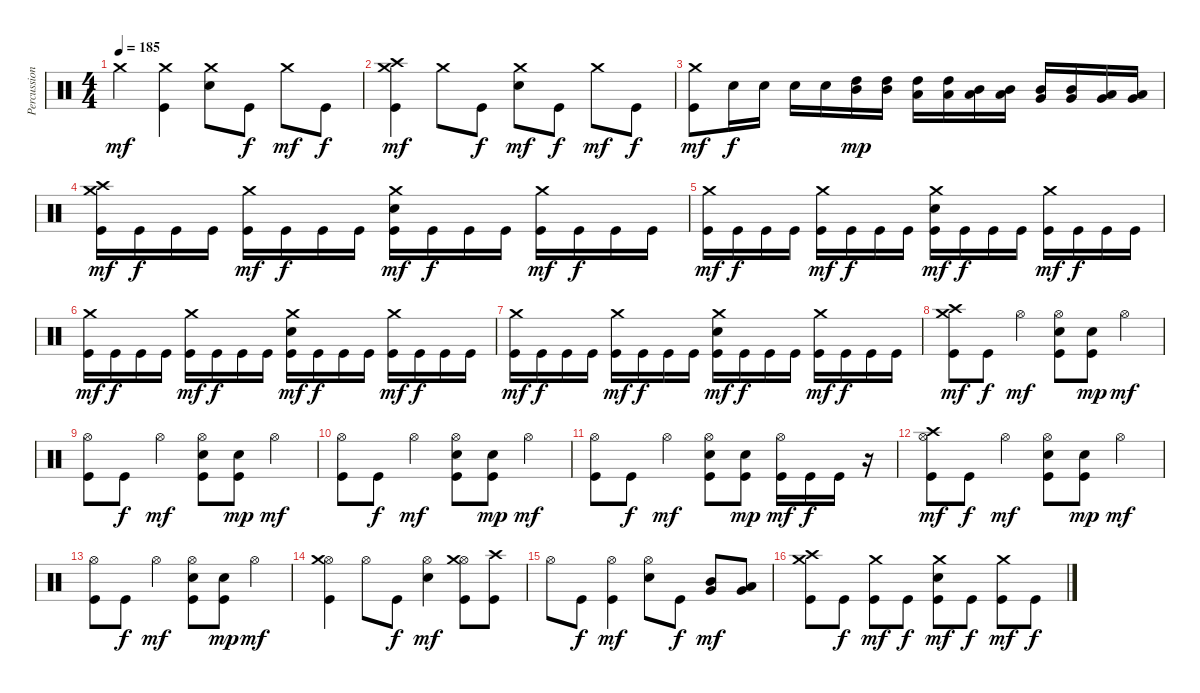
\track ("Percussions" "Percussion") {instrument percussion}
\staff {score}
\articulation defaults
\ts (4 4)
\tempo 185
\clef neutral
\ks c "Crash medium (hit)".4{dy mf}
("Kick (hit)" "Crash medium (hit)").4 ("Electric Snare (hit)" "Crash medium (hit)").8 "Kick (hit)".8{dy f} "Crash medium (hit)".8{dy mf} "Kick (hit)".8{dy f} |
("Kick (hit)" "Crash medium (hit)" "Crash high (hit)").4{dy mf} "Crash medium (hit)".8 "Kick (hit)".8{dy f} ("Electric Snare (hit)" "Crash medium (hit)").8{dy mf} "Kick (hit)".8{dy f} "Crash medium (hit)".8{dy mf} "Kick (hit)".8{dy f} |
("Kick (hit)" "Crash medium (hit)").8{dy mf} "Electric Snare (hit)".16{dy f} "Electric Snare (hit)".16 "Electric Snare (hit)".16 "Electric Snare (hit)".16 ("Mid Tom (hit)" "High Tom (hit)").16{dy mp} ("Mid Tom (hit)" "High Tom (hit)").16 ("Low Tom (hit)" "High Tom (hit)").16 ("Low Tom (hit)" "High Tom (hit)").16 ("Low Tom (hit)" "Mid Tom (hit)").16 ("Low Tom (hit)" "Mid Tom (hit)").16 ("Very Low Tom (hit)" "Mid Tom (hit)").16 ("Very Low Tom (hit)" "Mid Tom (hit)").16 ("Very Low Tom (hit)" "Low Tom (hit)").16 ("Very Low Tom (hit)" "Low Tom (hit)").16 |
("Kick (hit)" "Crash medium (hit)" "Crash high (hit)").16{dy mf} "Kick (hit)".16{dy f} "Kick (hit)".16 "Kick (hit)".16 ("Kick (hit)" "Crash medium (hit)").16{dy mf} "Kick (hit)".16{dy f} "Kick (hit)".16 "Kick (hit)".16 ("Kick (hit)" "Electric Snare (hit)" "Crash medium (hit)").16{dy mf} "Kick (hit)".16{dy f} "Kick (hit)".16 "Kick (hit)".16 ("Kick (hit)" "Crash medium (hit)").16{dy mf} "Kick (hit)".16{dy f} "Kick (hit)".16 "Kick (hit)".16 |
("Kick (hit)" "Crash medium (hit)").16{dy mf} "Kick (hit)".16{dy f} "Kick (hit)".16 "Kick (hit)".16 ("Kick (hit)" "Crash medium (hit)").16{dy mf} "Kick (hit)".16{dy f} "Kick (hit)".16 "Kick (hit)".16 ("Kick (hit)" "Electric Snare (hit)" "Crash medium (hit)").16{dy mf} "Kick (hit)".16{dy f} "Kick (hit)".16 "Kick (hit)".16 ("Kick (hit)" "Crash medium (hit)").16{dy mf} "Kick (hit)".16{dy f} "Kick (hit)".16 "Kick (hit)".16 |
("Kick (hit)" "Crash medium (hit)").16{dy mf} "Kick (hit)".16{dy f} "Kick (hit)".16 "Kick (hit)".16 ("Kick (hit)" "Crash medium (hit)").16{dy mf} "Kick (hit)".16{dy f} "Kick (hit)".16 "Kick (hit)".16 ("Kick (hit)" "Electric Snare (hit)" "Crash medium (hit)").16{dy mf} "Kick (hit)".16{dy f} "Kick (hit)".16 "Kick (hit)".16 ("Kick (hit)" "Crash medium (hit)").16{dy mf} "Kick (hit)".16{dy f} "Kick (hit)".16 "Kick (hit)".16 |
("Kick (hit)" "Crash medium (hit)").16{dy mf} "Kick (hit)".16{dy f} "Kick (hit)".16 "Kick (hit)".16 ("Kick (hit)" "Crash medium (hit)").16{dy mf} "Kick (hit)".16{dy f} "Kick (hit)".16 "Kick (hit)".16 ("Kick (hit)" "Electric Snare (hit)" "Crash medium (hit)").16{dy mf} "Kick (hit)".16{dy f} "Kick (hit)".16 "Kick (hit)".16 ("Kick (hit)" "Crash medium (hit)").16{dy mf} "Kick (hit)".16{dy f} "Kick (hit)".16 "Kick (hit)".16 |
("Kick (hit)" "Crash medium (hit)" "Crash high (hit)").8{dy mf} "Kick (hit)".8{dy f} "Hi-Hat (open)".4{dy mf} ("Kick (hit)" "Electric Snare (hit)" "Hi-Hat (open)").8 ("Kick (hit)" "Electric Snare (hit)").8{dy mp} "Hi-Hat (open)".4{dy mf} |
("Kick (hit)" "Hi-Hat (open)").8 "Kick (hit)".8{dy f} "Hi-Hat (open)".4{dy mf} ("Kick (hit)" "Electric Snare (hit)" "Hi-Hat (open)").8 ("Kick (hit)" "Electric Snare (hit)").8{dy mp} "Hi-Hat (open)".4{dy mf} |
("Kick (hit)" "Hi-Hat (open)").8 "Kick (hit)".8{dy f} "Hi-Hat (open)".4{dy mf} ("Kick (hit)" "Electric Snare (hit)" "Hi-Hat (open)").8 ("Kick (hit)" "Electric Snare (hit)").8{dy mp} "Hi-Hat (open)".4{dy mf} |
("Kick (hit)" "Hi-Hat (open)").8 "Kick (hit)".8{dy f} "Hi-Hat (open)".4{dy mf} ("Kick (hit)" "Electric Snare (hit)" "Hi-Hat (open)").8 ("Kick (hit)" "Electric Snare (hit)").8{dy mp} ("Kick (hit)" "Hi-Hat (open)").16{dy mf} "Kick (hit)".16{dy f} "Kick (hit)".16 r.16 |
("Kick (hit)" "Hi-Hat (open)" "Crash high (hit)").8{dy mf} "Kick (hit)".8{dy f} "Hi-Hat (open)".4{dy mf} ("Kick (hit)" "Electric Snare (hit)" "Hi-Hat (open)").8 ("Kick (hit)" "Electric Snare (hit)").8{dy mp} "Hi-Hat (open)".4{dy mf} |
("Kick (hit)" "Hi-Hat (open)").8 "Kick (hit)".8{dy f} "Hi-Hat (open)".4{dy mf} ("Kick (hit)" "Electric Snare (hit)" "Hi-Hat (open)").8 ("Kick (hit)" "Electric Snare (hit)").8{dy mp} "Hi-Hat (open)".4{dy mf} |
("Kick (hit)" "Hi-Hat (open)" "Crash medium (hit)").4 "Hi-Hat (open)".8 "Kick (hit)".8{dy f} ("Electric Snare (hit)" "Hi-Hat (open)").4{dy mf} ("Kick (hit)" "Hi-Hat (open)" "Crash medium (hit)").8 ("Kick (hit)" "Crash high (hit)").8 |
"Hi-Hat (open)".8 "Kick (hit)".8{dy f} ("Kick (hit)" "Hi-Hat (open)").4{dy mf} ("Electric Snare (hit)" "Hi-Hat (open)").8 "Kick (hit)".8{dy f} ("Very Low Tom (hit)" "Mid Tom (hit)").8{dy mf} ("Very Low Tom (hit)" "Low Tom (hit)").8 |
("Kick (hit)" "Crash medium (hit)" "Crash high (hit)").8 "Kick (hit)".8{dy f} ("Kick (hit)" "Crash medium (hit)").8{dy mf} "Kick (hit)".8{dy f} ("Kick (hit)" "Electric Snare (hit)" "Crash medium (hit)").8{dy mf} "Kick (hit)".8{dy f} ("Kick (hit)" "Crash medium (hit)").8{dy mf} "Kick (hit)".8{dy f}
